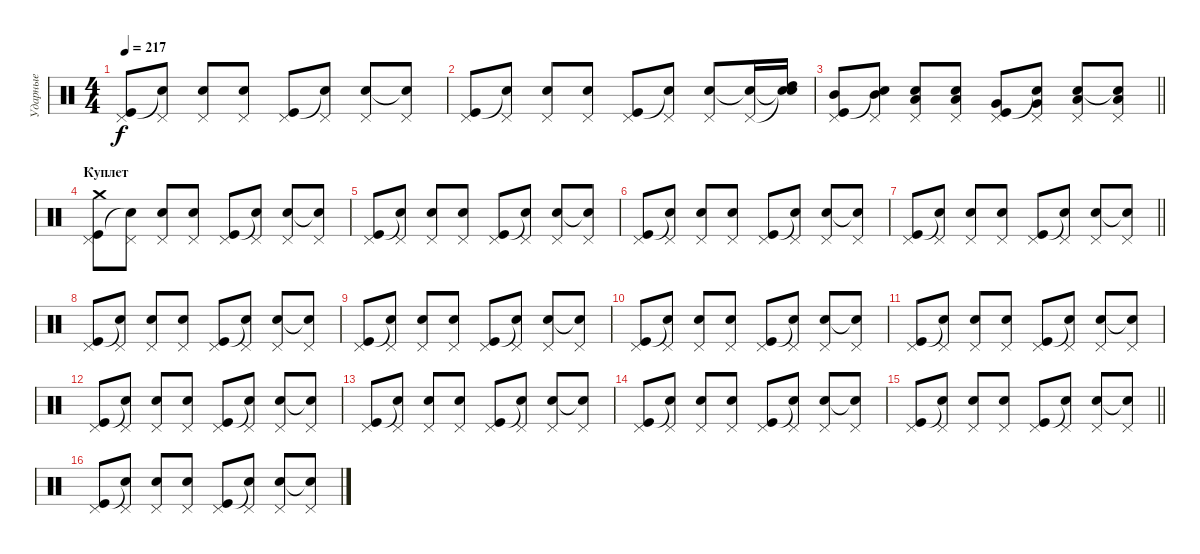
\track ("Ударные" "Ударные") {instrument percussion}
\staff {score}
\articulation defaults
\ts (4 4)
\tempo 217
\clef neutral
\ks c
("Pedal Hi-Hat (hit)" "Kick (hit)").8{dy f} ("Pedal Hi-Hat (hit)" "Snare (hit)"{t}).8 ("Pedal Hi-Hat (hit)" "Snare (hit) 2").8 ("Pedal Hi-Hat (hit)" "Snare (hit) 2").8 ("Pedal Hi-Hat (hit)" "Kick (hit)").8 ("Pedal Hi-Hat (hit)" "Snare (hit)"{t}).8 ("Pedal Hi-Hat (hit)" "Snare (hit) 2").8 ("Pedal Hi-Hat (hit)" "Snare (hit)"{t}).8 |
("Pedal Hi-Hat (hit)" "Kick (hit)").8 ("Pedal Hi-Hat (hit)" "Snare (hit)"{t}).8 ("Pedal Hi-Hat (hit)" "Snare (hit) 2").8 ("Pedal Hi-Hat (hit)" "Snare (hit) 2").8 ("Pedal Hi-Hat (hit)" "Kick (hit)").8 ("Pedal Hi-Hat (hit)" "Snare (hit)"{t}).8 ("Pedal Hi-Hat (hit)" "Snare (hit) 2").8 ("Pedal Hi-Hat (hit)" "Snare (hit)"{t}).16 ("Snare (hit)"{t} "Snare (hit)"{t} "High Tom (hit)").16 |
\barLineRight lightlight
("Pedal Hi-Hat (hit)" "Kick (hit)" "Mid Tom (hit)").8 ("Pedal Hi-Hat (hit)" "Snare (hit)"{t} "Mid Tom (hit)").8 ("Pedal Hi-Hat (hit)" "Snare (hit) 2" "Low Tom (hit)").8 ("Pedal Hi-Hat (hit)" "Snare (hit) 2" "Low Tom (hit)").8 ("Pedal Hi-Hat (hit)" "Kick (hit)" "Very Low Tom (hit)").8 ("Pedal Hi-Hat (hit)" "Snare (hit)"{t} "Very Low Tom (hit)").8 ("Pedal Hi-Hat (hit)" "Snare (hit) 2" "Low Floor Tom (hit)").8 ("Pedal Hi-Hat (hit)" "Snare (hit)"{t} "Low Floor Tom (hit)").8 |
\section ("" "Куплет")
("Pedal Hi-Hat (hit)" "Kick (hit)" "Crash medium (hit)").8 ("Pedal Hi-Hat (hit)" "Snare (hit)"{t}).8 ("Pedal Hi-Hat (hit)" "Snare (hit) 2").8 ("Pedal Hi-Hat (hit)" "Snare (hit) 2").8 ("Pedal Hi-Hat (hit)" "Kick (hit)").8 ("Pedal Hi-Hat (hit)" "Snare (hit)"{t}).8 ("Pedal Hi-Hat (hit)" "Snare (hit) 2").8 ("Pedal Hi-Hat (hit)" "Snare (hit)"{t}).8 |
("Pedal Hi-Hat (hit)" "Kick (hit)").8 ("Pedal Hi-Hat (hit)" "Snare (hit)"{t}).8 ("Pedal Hi-Hat (hit)" "Snare (hit) 2").8 ("Pedal Hi-Hat (hit)" "Snare (hit) 2").8 ("Pedal Hi-Hat (hit)" "Kick (hit)").8 ("Pedal Hi-Hat (hit)" "Snare (hit)"{t}).8 ("Pedal Hi-Hat (hit)" "Snare (hit) 2").8 ("Pedal Hi-Hat (hit)" "Snare (hit)"{t}).8 |
("Pedal Hi-Hat (hit)" "Kick (hit)").8 ("Pedal Hi-Hat (hit)" "Snare (hit)"{t}).8 ("Pedal Hi-Hat (hit)" "Snare (hit) 2").8 ("Pedal Hi-Hat (hit)" "Snare (hit) 2").8 ("Pedal Hi-Hat (hit)" "Kick (hit)").8 ("Pedal Hi-Hat (hit)" "Snare (hit)"{t}).8 ("Pedal Hi-Hat (hit)" "Snare (hit) 2").8 ("Pedal Hi-Hat (hit)" "Snare (hit)"{t}).8 |
\barLineRight lightlight
("Pedal Hi-Hat (hit)" "Kick (hit)").8 ("Pedal Hi-Hat (hit)" "Snare (hit)"{t}).8 ("Pedal Hi-Hat (hit)" "Snare (hit) 2").8 ("Pedal Hi-Hat (hit)" "Snare (hit) 2").8 ("Pedal Hi-Hat (hit)" "Kick (hit)").8 ("Pedal Hi-Hat (hit)" "Snare (hit)"{t}).8 ("Pedal Hi-Hat (hit)" "Snare (hit) 2").8 ("Pedal Hi-Hat (hit)" "Snare (hit)"{t}).8 |
("Pedal Hi-Hat (hit)" "Kick (hit)").8 ("Pedal Hi-Hat (hit)" "Snare (hit)"{t}).8 ("Pedal Hi-Hat (hit)" "Snare (hit) 2").8 ("Pedal Hi-Hat (hit)" "Snare (hit) 2").8 ("Pedal Hi-Hat (hit)" "Kick (hit)").8 ("Pedal Hi-Hat (hit)" "Snare (hit)"{t}).8 ("Pedal Hi-Hat (hit)" "Snare (hit) 2").8 ("Pedal Hi-Hat (hit)" "Snare (hit)"{t}).8 |
("Pedal Hi-Hat (hit)" "Kick (hit)").8 ("Pedal Hi-Hat (hit)" "Snare (hit)"{t}).8 ("Pedal Hi-Hat (hit)" "Snare (hit) 2").8 ("Pedal Hi-Hat (hit)" "Snare (hit) 2").8 ("Pedal Hi-Hat (hit)" "Kick (hit)").8 ("Pedal Hi-Hat (hit)" "Snare (hit)"{t}).8 ("Pedal Hi-Hat (hit)" "Snare (hit) 2").8 ("Pedal Hi-Hat (hit)" "Snare (hit)"{t}).8 |
("Pedal Hi-Hat (hit)" "Kick (hit)").8 ("Pedal Hi-Hat (hit)" "Snare (hit)"{t}).8 ("Pedal Hi-Hat (hit)" "Snare (hit) 2").8 ("Pedal Hi-Hat (hit)" "Snare (hit) 2").8 ("Pedal Hi-Hat (hit)" "Kick (hit)").8 ("Pedal Hi-Hat (hit)" "Snare (hit)"{t}).8 ("Pedal Hi-Hat (hit)" "Snare (hit) 2").8 ("Pedal Hi-Hat (hit)" "Snare (hit)"{t}).8 |
("Pedal Hi-Hat (hit)" "Kick (hit)").8 ("Pedal Hi-Hat (hit)" "Snare (hit)"{t}).8 ("Pedal Hi-Hat (hit)" "Snare (hit) 2").8 ("Pedal Hi-Hat (hit)" "Snare (hit) 2").8 ("Pedal Hi-Hat (hit)" "Kick (hit)").8 ("Pedal Hi-Hat (hit)" "Snare (hit)"{t}).8 ("Pedal Hi-Hat (hit)" "Snare (hit) 2").8 ("Pedal Hi-Hat (hit)" "Snare (hit)"{t}).8 |
("Pedal Hi-Hat (hit)" "Kick (hit)").8 ("Pedal Hi-Hat (hit)" "Snare (hit)"{t}).8 ("Pedal Hi-Hat (hit)" "Snare (hit) 2").8 ("Pedal Hi-Hat (hit)" "Snare (hit) 2").8 ("Pedal Hi-Hat (hit)" "Kick (hit)").8 ("Pedal Hi-Hat (hit)" "Snare (hit)"{t}).8 ("Pedal Hi-Hat (hit)" "Snare (hit) 2").8 ("Pedal Hi-Hat (hit)" "Snare (hit)"{t}).8 |
("Pedal Hi-Hat (hit)" "Kick (hit)").8 ("Pedal Hi-Hat (hit)" "Snare (hit)"{t}).8 ("Pedal Hi-Hat (hit)" "Snare (hit) 2").8 ("Pedal Hi-Hat (hit)" "Snare (hit) 2").8 ("Pedal Hi-Hat (hit)" "Kick (hit)").8 ("Pedal Hi-Hat (hit)" "Snare (hit)"{t}).8 ("Pedal Hi-Hat (hit)" "Snare (hit) 2").8 ("Pedal Hi-Hat (hit)" "Snare (hit)"{t}).8 |
("Pedal Hi-Hat (hit)" "Kick (hit)").8 ("Pedal Hi-Hat (hit)" "Snare (hit)"{t}).8 ("Pedal Hi-Hat (hit)" "Snare (hit) 2").8 ("Pedal Hi-Hat (hit)" "Snare (hit) 2").8 ("Pedal Hi-Hat (hit)" "Kick (hit)").8 ("Pedal Hi-Hat (hit)" "Snare (hit)"{t}).8 ("Pedal Hi-Hat (hit)" "Snare (hit) 2").8 ("Pedal Hi-Hat (hit)" "Snare (hit)"{t}).8 |
\barLineRight lightlight
("Pedal Hi-Hat (hit)" "Kick (hit)").8 ("Pedal Hi-Hat (hit)" "Snare (hit)"{t}).8 ("Pedal Hi-Hat (hit)" "Snare (hit) 2").8 ("Pedal Hi-Hat (hit)" "Snare (hit) 2").8 ("Pedal Hi-Hat (hit)" "Kick (hit)").8 ("Pedal Hi-Hat (hit)" "Snare (hit)"{t}).8 ("Pedal Hi-Hat (hit)" "Snare (hit) 2").8 ("Pedal Hi-Hat (hit)" "Snare (hit)"{t}).8 |
("Pedal Hi-Hat (hit)" "Kick (hit)").8 ("Pedal Hi-Hat (hit)" "Snare (hit)"{t}).8 ("Pedal Hi-Hat (hit)" "Snare (hit) 2").8 ("Pedal Hi-Hat (hit)" "Snare (hit) 2").8 ("Pedal Hi-Hat (hit)" "Kick (hit)").8 ("Pedal Hi-Hat (hit)" "Snare (hit)"{t}).8 ("Pedal Hi-Hat (hit)" "Snare (hit) 2").8 ("Pedal Hi-Hat (hit)" "Snare (hit)"{t}).8
